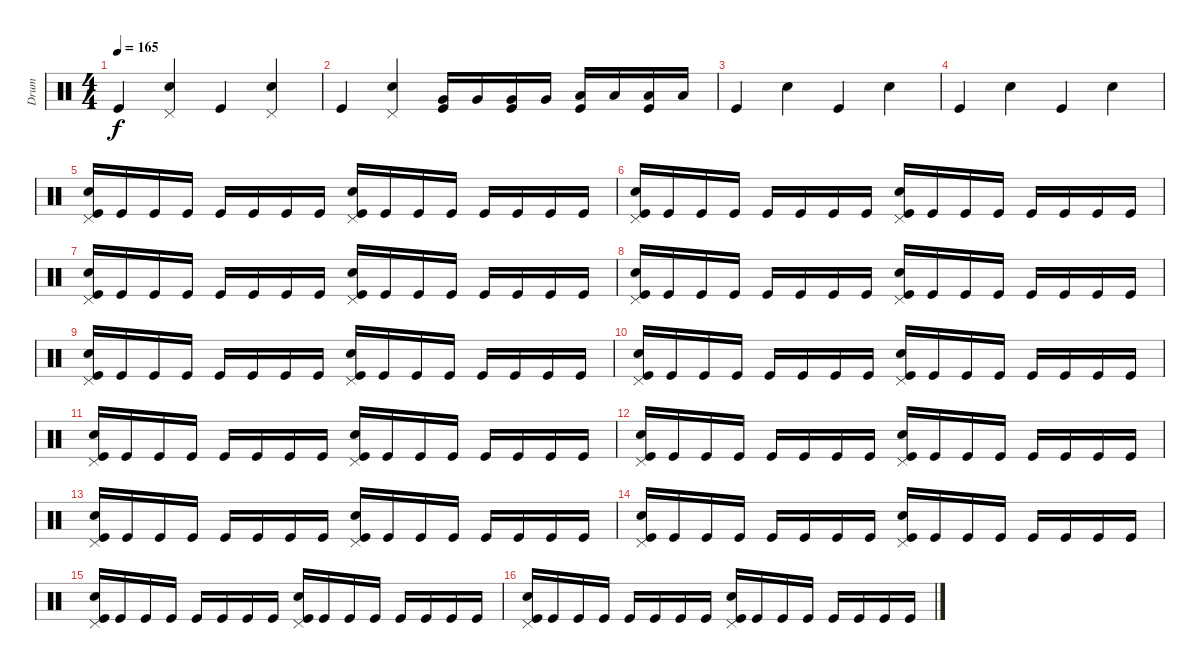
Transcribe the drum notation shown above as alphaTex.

\track ("Drum" "Drum") {instrument percussion}
\staff {score}
\articulation defaults
\ts (4 4)
\tempo 165
\clef neutral
\ks c "Kick (hit)".4{dy f}
("Pedal Hi-Hat (hit)" "Electric Snare (hit)").4 "Kick (hit)".4 ("Pedal Hi-Hat (hit)" "Electric Snare (hit)").4 |
"Kick (hit)".4 ("Pedal Hi-Hat (hit)" "Electric Snare (hit)").4 ("Very Low Tom (hit)" "Kick (hit)").16 "Very Low Tom (hit)".16 ("Very Low Tom (hit)" "Kick (hit)").16 "Very Low Tom (hit)".16 ("Low Tom (hit)" "Kick (hit)").16 "Low Tom (hit)".16 ("Low Tom (hit)" "Kick (hit)").16 "Low Tom (hit)".16 |
"Kick (hit)".4 "Electric Snare (hit)".4 "Kick (hit)".4 "Electric Snare (hit)".4 |
"Kick (hit)".4 "Electric Snare (hit)".4 "Kick (hit)".4 "Electric Snare (hit)".4 |
("Pedal Hi-Hat (hit)" "Electric Snare (hit)" "Kick (hit)").16 "Kick (hit)".16 "Kick (hit)".16 "Kick (hit)".16 "Kick (hit)".16 "Kick (hit)".16 "Kick (hit)".16 "Kick (hit)".16 ("Pedal Hi-Hat (hit)" "Electric Snare (hit)" "Kick (hit)").16 "Kick (hit)".16 "Kick (hit)".16 "Kick (hit)".16 "Kick (hit)".16 "Kick (hit)".16 "Kick (hit)".16 "Kick (hit)".16 |
("Pedal Hi-Hat (hit)" "Electric Snare (hit)" "Kick (hit)").16 "Kick (hit)".16 "Kick (hit)".16 "Kick (hit)".16 "Kick (hit)".16 "Kick (hit)".16 "Kick (hit)".16 "Kick (hit)".16 ("Pedal Hi-Hat (hit)" "Electric Snare (hit)" "Kick (hit)").16 "Kick (hit)".16 "Kick (hit)".16 "Kick (hit)".16 "Kick (hit)".16 "Kick (hit)".16 "Kick (hit)".16 "Kick (hit)".16 |
("Pedal Hi-Hat (hit)" "Electric Snare (hit)" "Kick (hit)").16 "Kick (hit)".16 "Kick (hit)".16 "Kick (hit)".16 "Kick (hit)".16 "Kick (hit)".16 "Kick (hit)".16 "Kick (hit)".16 ("Pedal Hi-Hat (hit)" "Electric Snare (hit)" "Kick (hit)").16 "Kick (hit)".16 "Kick (hit)".16 "Kick (hit)".16 "Kick (hit)".16 "Kick (hit)".16 "Kick (hit)".16 "Kick (hit)".16 |
("Pedal Hi-Hat (hit)" "Electric Snare (hit)" "Kick (hit)").16 "Kick (hit)".16 "Kick (hit)".16 "Kick (hit)".16 "Kick (hit)".16 "Kick (hit)".16 "Kick (hit)".16 "Kick (hit)".16 ("Pedal Hi-Hat (hit)" "Electric Snare (hit)" "Kick (hit)").16 "Kick (hit)".16 "Kick (hit)".16 "Kick (hit)".16 "Kick (hit)".16 "Kick (hit)".16 "Kick (hit)".16 "Kick (hit)".16 |
("Pedal Hi-Hat (hit)" "Electric Snare (hit)" "Kick (hit)").16 "Kick (hit)".16 "Kick (hit)".16 "Kick (hit)".16 "Kick (hit)".16 "Kick (hit)".16 "Kick (hit)".16 "Kick (hit)".16 ("Pedal Hi-Hat (hit)" "Electric Snare (hit)" "Kick (hit)").16 "Kick (hit)".16 "Kick (hit)".16 "Kick (hit)".16 "Kick (hit)".16 "Kick (hit)".16 "Kick (hit)".16 "Kick (hit)".16 |
("Pedal Hi-Hat (hit)" "Electric Snare (hit)" "Kick (hit)").16 "Kick (hit)".16 "Kick (hit)".16 "Kick (hit)".16 "Kick (hit)".16 "Kick (hit)".16 "Kick (hit)".16 "Kick (hit)".16 ("Pedal Hi-Hat (hit)" "Electric Snare (hit)" "Kick (hit)").16 "Kick (hit)".16 "Kick (hit)".16 "Kick (hit)".16 "Kick (hit)".16 "Kick (hit)".16 "Kick (hit)".16 "Kick (hit)".16 |
("Pedal Hi-Hat (hit)" "Electric Snare (hit)" "Kick (hit)").16 "Kick (hit)".16 "Kick (hit)".16 "Kick (hit)".16 "Kick (hit)".16 "Kick (hit)".16 "Kick (hit)".16 "Kick (hit)".16 ("Pedal Hi-Hat (hit)" "Electric Snare (hit)" "Kick (hit)").16 "Kick (hit)".16 "Kick (hit)".16 "Kick (hit)".16 "Kick (hit)".16 "Kick (hit)".16 "Kick (hit)".16 "Kick (hit)".16 |
("Pedal Hi-Hat (hit)" "Electric Snare (hit)" "Kick (hit)").16 "Kick (hit)".16 "Kick (hit)".16 "Kick (hit)".16 "Kick (hit)".16 "Kick (hit)".16 "Kick (hit)".16 "Kick (hit)".16 ("Pedal Hi-Hat (hit)" "Electric Snare (hit)" "Kick (hit)").16 "Kick (hit)".16 "Kick (hit)".16 "Kick (hit)".16 "Kick (hit)".16 "Kick (hit)".16 "Kick (hit)".16 "Kick (hit)".16 |
("Pedal Hi-Hat (hit)" "Electric Snare (hit)" "Kick (hit)").16 "Kick (hit)".16 "Kick (hit)".16 "Kick (hit)".16 "Kick (hit)".16 "Kick (hit)".16 "Kick (hit)".16 "Kick (hit)".16 ("Pedal Hi-Hat (hit)" "Electric Snare (hit)" "Kick (hit)").16 "Kick (hit)".16 "Kick (hit)".16 "Kick (hit)".16 "Kick (hit)".16 "Kick (hit)".16 "Kick (hit)".16 "Kick (hit)".16 |
("Pedal Hi-Hat (hit)" "Electric Snare (hit)" "Kick (hit)").16 "Kick (hit)".16 "Kick (hit)".16 "Kick (hit)".16 "Kick (hit)".16 "Kick (hit)".16 "Kick (hit)".16 "Kick (hit)".16 ("Pedal Hi-Hat (hit)" "Electric Snare (hit)" "Kick (hit)").16 "Kick (hit)".16 "Kick (hit)".16 "Kick (hit)".16 "Kick (hit)".16 "Kick (hit)".16 "Kick (hit)".16 "Kick (hit)".16 |
("Pedal Hi-Hat (hit)" "Electric Snare (hit)" "Kick (hit)").16 "Kick (hit)".16 "Kick (hit)".16 "Kick (hit)".16 "Kick (hit)".16 "Kick (hit)".16 "Kick (hit)".16 "Kick (hit)".16 ("Pedal Hi-Hat (hit)" "Electric Snare (hit)" "Kick (hit)").16 "Kick (hit)".16 "Kick (hit)".16 "Kick (hit)".16 "Kick (hit)".16 "Kick (hit)".16 "Kick (hit)".16 "Kick (hit)".16 |
("Pedal Hi-Hat (hit)" "Electric Snare (hit)" "Kick (hit)").16 "Kick (hit)".16 "Kick (hit)".16 "Kick (hit)".16 "Kick (hit)".16 "Kick (hit)".16 "Kick (hit)".16 "Kick (hit)".16 ("Pedal Hi-Hat (hit)" "Electric Snare (hit)" "Kick (hit)").16 "Kick (hit)".16 "Kick (hit)".16 "Kick (hit)".16 "Kick (hit)".16 "Kick (hit)".16 "Kick (hit)".16 "Kick (hit)".16
